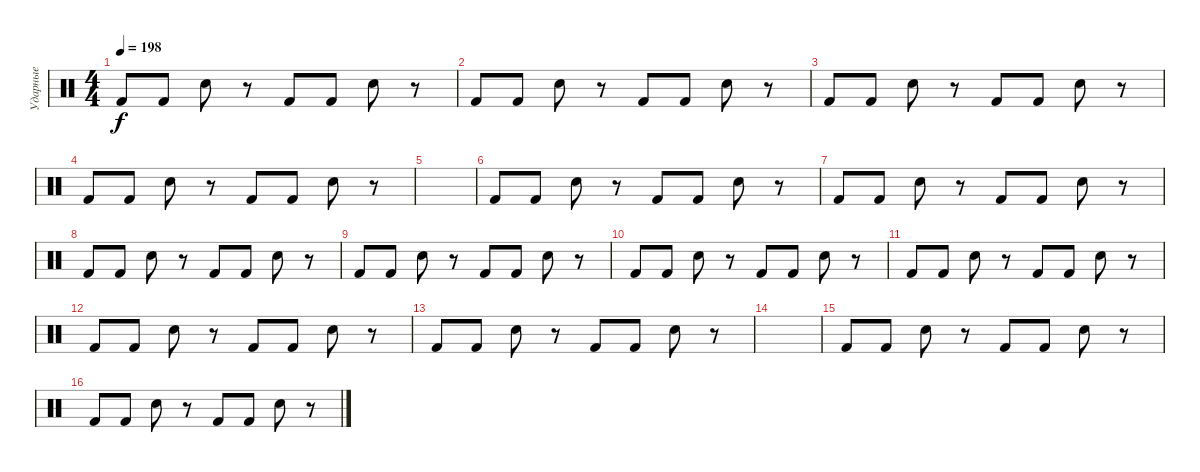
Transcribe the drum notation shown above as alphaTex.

\track ("Ударные" "Ударные") {instrument percussion}
\staff {score}
\articulation defaults
\ts (4 4)
\tempo 198
\clef neutral
\ks c "Kick (hit) 2".8{dy f} "Kick (hit) 2".8 "Snare (hit) 2".8
r.8 "Kick (hit) 2".8 "Kick (hit) 2".8 "Snare (hit) 2".8 r.8 |
"Kick (hit) 2".8 "Kick (hit) 2".8 "Snare (hit) 2".8 r.8 "Kick (hit) 2".8 "Kick (hit) 2".8 "Snare (hit) 2".8 r.8 |
"Kick (hit) 2".8 "Kick (hit) 2".8 "Snare (hit) 2".8 r.8 "Kick (hit) 2".8 "Kick (hit) 2".8 "Snare (hit) 2".8 r.8 |
"Kick (hit) 2".8 "Kick (hit) 2".8 "Snare (hit) 2".8 r.8 "Kick (hit) 2".8 "Kick (hit) 2".8 "Snare (hit) 2".8 r.8 |
|
"Kick (hit) 2".8 "Kick (hit) 2".8 "Snare (hit) 2".8 r.8 "Kick (hit) 2".8 "Kick (hit) 2".8 "Snare (hit) 2".8 r.8 |
"Kick (hit) 2".8 "Kick (hit) 2".8 "Snare (hit) 2".8 r.8 "Kick (hit) 2".8 "Kick (hit) 2".8 "Snare (hit) 2".8 r.8 |
"Kick (hit) 2".8 "Kick (hit) 2".8 "Snare (hit) 2".8 r.8 "Kick (hit) 2".8 "Kick (hit) 2".8 "Snare (hit) 2".8 r.8 |
"Kick (hit) 2".8 "Kick (hit) 2".8 "Snare (hit) 2".8 r.8 "Kick (hit) 2".8 "Kick (hit) 2".8 "Snare (hit) 2".8 r.8 |
"Kick (hit) 2".8 "Kick (hit) 2".8 "Snare (hit) 2".8 r.8 "Kick (hit) 2".8 "Kick (hit) 2".8 "Snare (hit) 2".8 r.8 |
"Kick (hit) 2".8 "Kick (hit) 2".8 "Snare (hit) 2".8 r.8 "Kick (hit) 2".8 "Kick (hit) 2".8 "Snare (hit) 2".8 r.8 |
"Kick (hit) 2".8 "Kick (hit) 2".8 "Snare (hit) 2".8 r.8 "Kick (hit) 2".8 "Kick (hit) 2".8 "Snare (hit) 2".8 r.8 |
"Kick (hit) 2".8 "Kick (hit) 2".8 "Snare (hit) 2".8 r.8 "Kick (hit) 2".8 "Kick (hit) 2".8 "Snare (hit) 2".8 r.8 |
|
"Kick (hit) 2".8 "Kick (hit) 2".8 "Snare (hit) 2".8 r.8 "Kick (hit) 2".8 "Kick (hit) 2".8 "Snare (hit) 2".8 r.8 |
"Kick (hit) 2".8 "Kick (hit) 2".8 "Snare (hit) 2".8 r.8 "Kick (hit) 2".8 "Kick (hit) 2".8 "Snare (hit) 2".8 r.8
